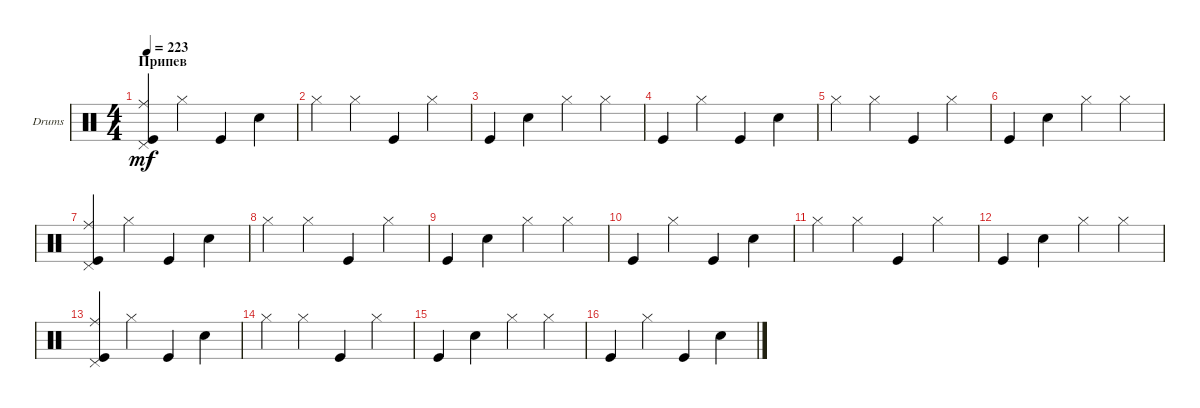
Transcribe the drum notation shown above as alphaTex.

\defaultSystemsLayout 4
\bracketExtendMode groupsimilarinstruments
\firstSystemTrackNameOrientation horizontal
\otherSystemsTrackNameOrientation horizontal
\track ("Drumkit" "Drums") {instrument percussion}
\staff {score}
\articulation defaults
\ts (4 4)
\section ("" "Припев")
\tempo 223
\clef neutral
\ks c
("Kick (hit)" "Ride (middle)" "Pedal Hi-Hat (hit)").4{dy mf} "Hi-Hat (closed)".4 "Kick (hit)".4 "Snare (hit) 2".4 |
"Hi-Hat (closed)".4 "Hi-Hat (closed)".4 "Kick (hit)".4 "Hi-Hat (closed)".4 |
"Kick (hit)".4 "Snare (hit) 2".4 "Hi-Hat (closed)".4 "Hi-Hat (closed)".4 |
"Kick (hit)".4 "Hi-Hat (closed)".4 "Kick (hit)".4 "Snare (hit) 2".4 |
"Hi-Hat (closed)".4 "Hi-Hat (closed)".4 "Kick (hit)".4 "Hi-Hat (closed)".4 |
"Kick (hit)".4 "Snare (hit) 2".4 "Hi-Hat (closed)".4 "Hi-Hat (closed)".4 |
("Kick (hit)" "Ride (middle)" "Pedal Hi-Hat (hit)").4 "Hi-Hat (closed)".4 "Kick (hit)".4 "Snare (hit) 2".4 |
"Hi-Hat (closed)".4 "Hi-Hat (closed)".4 "Kick (hit)".4 "Hi-Hat (closed)".4 |
"Kick (hit)".4 "Snare (hit) 2".4 "Hi-Hat (closed)".4 "Hi-Hat (closed)".4 |
"Kick (hit)".4 "Hi-Hat (closed)".4 "Kick (hit)".4 "Snare (hit) 2".4 |
"Hi-Hat (closed)".4 "Hi-Hat (closed)".4 "Kick (hit)".4 "Hi-Hat (closed)".4 |
"Kick (hit)".4 "Snare (hit) 2".4 "Hi-Hat (closed)".4 "Hi-Hat (closed)".4 |
("Kick (hit)" "Ride (middle)" "Pedal Hi-Hat (hit)").4 "Hi-Hat (closed)".4 "Kick (hit)".4 "Snare (hit) 2".4 |
"Hi-Hat (closed)".4 "Hi-Hat (closed)".4 "Kick (hit)".4 "Hi-Hat (closed)".4 |
"Kick (hit)".4 "Snare (hit) 2".4 "Hi-Hat (closed)".4 "Hi-Hat (closed)".4 |
"Kick (hit)".4 "Hi-Hat (closed)".4 "Kick (hit)".4 "Snare (hit) 2".4
